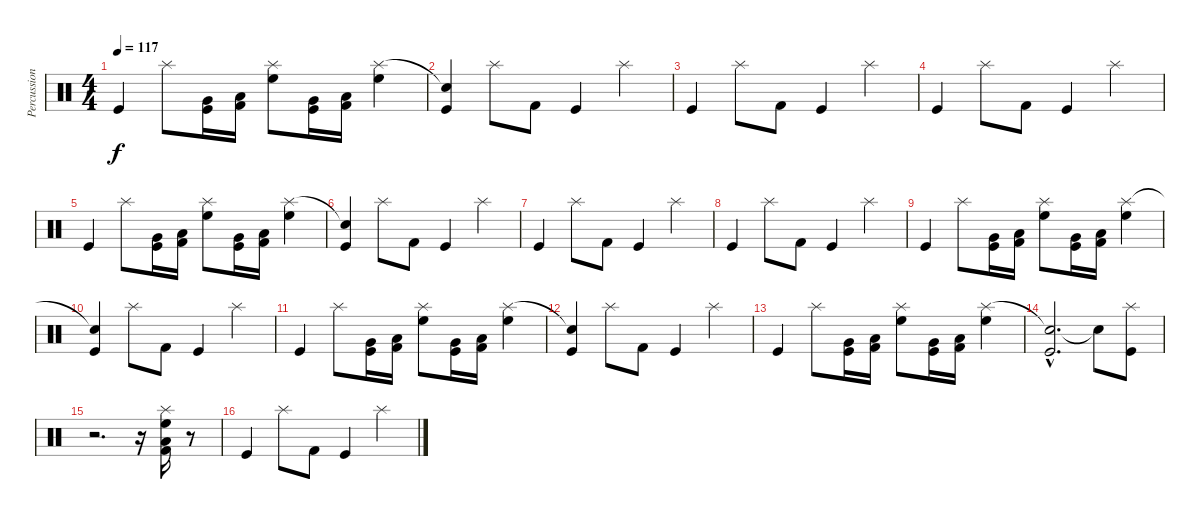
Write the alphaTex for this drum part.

\track ("Percussions" "Percussion") {instrument percussion}
\staff {score}
\articulation defaults
\ts (4 4)
\tempo 117
\clef neutral
\ks c "Kick (hit)".4{dy f} "Splash (hit)".8
("Very Low Tom (hit)" "Kick (hit)").16 ("Low Tom (hit)" "Kick (hit) 2").16 ("Splash (hit)" "High Floor Tom (hit)").8 ("Very Low Tom (hit)" "Kick (hit)").16 ("Low Tom (hit)" "Kick (hit) 2").16 ("Splash (hit)" "High Floor Tom (hit)").4 |
("Snare (hit)"{t} "Kick (hit)").4 "Splash (hit)".8 "Kick (hit) 2".8 "Kick (hit)".4 "Splash (hit)".4 |
"Kick (hit)".4 "Splash (hit)".8 "Kick (hit) 2".8 "Kick (hit)".4 "Splash (hit)".4 |
"Kick (hit)".4 "Splash (hit)".8 "Kick (hit) 2".8 "Kick (hit)".4 "Splash (hit)".4 |
"Kick (hit)".4 "Splash (hit)".8 ("Very Low Tom (hit)" "Kick (hit)").16 ("Low Tom (hit)" "Kick (hit) 2").16 ("Splash (hit)" "High Floor Tom (hit)").8 ("Very Low Tom (hit)" "Kick (hit)").16 ("Low Tom (hit)" "Kick (hit) 2").16 ("Splash (hit)" "High Floor Tom (hit)").4 |
("Snare (hit)"{t} "Kick (hit)").4 "Splash (hit)".8 "Kick (hit) 2".8 "Kick (hit)".4 "Splash (hit)".4 |
"Kick (hit)".4 "Splash (hit)".8 "Kick (hit) 2".8 "Kick (hit)".4 "Splash (hit)".4 |
"Kick (hit)".4 "Splash (hit)".8 "Kick (hit) 2".8 "Kick (hit)".4 "Splash (hit)".4 |
"Kick (hit)".4 "Splash (hit)".8 ("Very Low Tom (hit)" "Kick (hit)").16 ("Low Tom (hit)" "Kick (hit) 2").16 ("Splash (hit)" "High Floor Tom (hit)").8 ("Very Low Tom (hit)" "Kick (hit)").16 ("Low Tom (hit)" "Kick (hit) 2").16 ("Splash (hit)" "High Floor Tom (hit)").4 |
("Snare (hit)"{t} "Kick (hit)").4 "Splash (hit)".8 "Kick (hit) 2".8 "Kick (hit)".4 "Splash (hit)".4 |
"Kick (hit)".4 "Splash (hit)".8 ("Very Low Tom (hit)" "Kick (hit)").16 ("Low Tom (hit)" "Kick (hit) 2").16 ("Splash (hit)" "High Floor Tom (hit)").8 ("Very Low Tom (hit)" "Kick (hit)").16 ("Low Tom (hit)" "Kick (hit) 2").16 ("Splash (hit)" "High Floor Tom (hit)").4 |
("Snare (hit)"{t} "Kick (hit)").4 "Splash (hit)".8 "Kick (hit) 2".8 "Kick (hit)".4 "Splash (hit)".4 |
"Kick (hit)".4 "Splash (hit)".8 ("Very Low Tom (hit)" "Kick (hit)").16 ("Low Tom (hit)" "Kick (hit) 2").16 ("Splash (hit)" "High Floor Tom (hit)").8 ("Very Low Tom (hit)" "Kick (hit)").16 ("Low Tom (hit)" "Kick (hit) 2").16 ("Splash (hit)" "High Floor Tom (hit)").4 |
("Snare (hit)"{hac t} "Kick (hit)"{hac}).2{d} "Snare (hit)"{t}.8 ("Splash (hit)" "Kick (hit)").8 |
r.2{d} r.16 ("Splash (hit)" "Low Tom (hit)" "High Floor Tom (hit)" "Kick (hit) 2").16 r.8 |
"Kick (hit)".4 "Splash (hit)".8 "Kick (hit) 2".8 "Kick (hit)".4 "Splash (hit)".4
